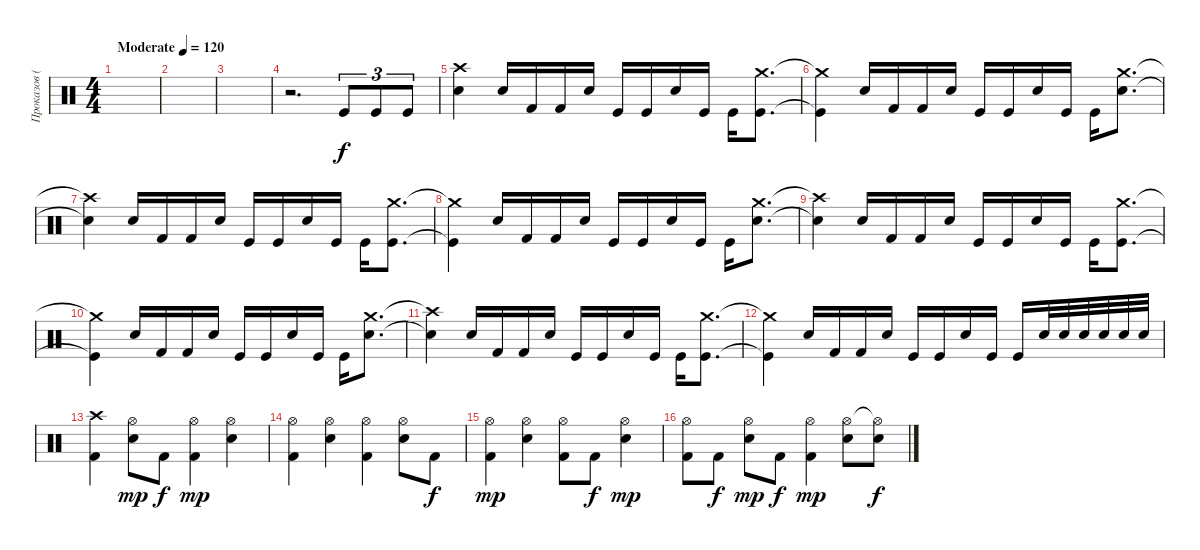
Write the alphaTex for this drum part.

\track ("Проказов (ударные)" "Проказов (") {instrument percussion}
\staff {score}
\articulation defaults
\ts (4 4)
\tempo (120 "Moderate")
\clef neutral
\ks c
|
|
|
r.2{d} "Kick (hit)".8{tu (3 2)} "Kick (hit)".8{tu (3 2)} "Kick (hit)".8{tu (3 2)} |
("Crash high (hit)" "Snare (hit) 2").4 "Snare (hit) 2".16 "Kick (hit) 2".16 "Kick (hit) 2".16 "Snare (hit) 2".16 "Kick (hit)".16 "Kick (hit)".16 "Snare (hit) 2".16 "Kick (hit)".16 "Kick (hit)".16 ("Crash medium (hit)" "Kick (hit)").8{d} |
("Crash medium (hit)"{t} "Kick (hit)"{t}).4 "Snare (hit) 2".16 "Kick (hit) 2".16 "Kick (hit) 2".16 "Snare (hit) 2".16 "Kick (hit)".16 "Kick (hit)".16 "Snare (hit) 2".16 "Kick (hit)".16 "Kick (hit)".16 ("Crash medium (hit)" "Snare (hit) 2").8{d} |
("Crash high (hit)"{t} "Snare (hit) 2"{t}).4 "Snare (hit) 2".16 "Kick (hit) 2".16 "Kick (hit) 2".16 "Snare (hit) 2".16 "Kick (hit)".16 "Kick (hit)".16 "Snare (hit) 2".16 "Kick (hit)".16 "Kick (hit)".16 ("Crash medium (hit)" "Kick (hit)").8{d} |
("Crash medium (hit)"{t} "Kick (hit)"{t}).4 "Snare (hit) 2".16 "Kick (hit) 2".16 "Kick (hit) 2".16 "Snare (hit) 2".16 "Kick (hit)".16 "Kick (hit)".16 "Snare (hit) 2".16 "Kick (hit)".16 "Kick (hit)".16 ("Crash medium (hit)" "Snare (hit) 2").8{d} |
("Crash high (hit)"{t} "Snare (hit) 2"{t}).4 "Snare (hit) 2".16 "Kick (hit) 2".16 "Kick (hit) 2".16 "Snare (hit) 2".16 "Kick (hit)".16 "Kick (hit)".16 "Snare (hit) 2".16 "Kick (hit)".16 "Kick (hit)".16 ("Crash medium (hit)" "Kick (hit)").8{d} |
("Crash medium (hit)"{t} "Kick (hit)"{t}).4 "Snare (hit) 2".16 "Kick (hit) 2".16 "Kick (hit) 2".16 "Snare (hit) 2".16 "Kick (hit)".16 "Kick (hit)".16 "Snare (hit) 2".16 "Kick (hit)".16 "Kick (hit)".16 ("Crash medium (hit)" "Snare (hit) 2").8{d} |
("Crash high (hit)"{t} "Snare (hit) 2"{t}).4 "Snare (hit) 2".16 "Kick (hit) 2".16 "Kick (hit) 2".16 "Snare (hit) 2".16 "Kick (hit)".16 "Kick (hit)".16 "Snare (hit) 2".16 "Kick (hit)".16 "Kick (hit)".16 ("Crash medium (hit)" "Kick (hit)").8{d} |
("Crash medium (hit)"{t} "Kick (hit)"{t}).4 "Snare (hit) 2".16 "Kick (hit) 2".16 "Kick (hit) 2".16 "Snare (hit) 2".16 "Kick (hit)".16 "Kick (hit)".16 "Snare (hit) 2".16 "Kick (hit)".16 "Kick (hit)".16 "Electric Snare (hit)".32 "Electric Snare (hit)".32 "Electric Snare (hit)".32 "Electric Snare (hit)".32 "Electric Snare (hit)".32 "Electric Snare (hit)".32 |
("Crash high (hit)" "Kick (hit) 2").4 ("Hi-Hat (open)" "Snare (hit) 2").8{dy mp} "Kick (hit) 2".8{dy f} ("Hi-Hat (open)" "Kick (hit) 2").4{dy mp} ("Hi-Hat (open)" "Snare (hit) 2").4 |
("Hi-Hat (open)" "Kick (hit) 2").4 ("Hi-Hat (open)" "Snare (hit) 2").4 ("Hi-Hat (open)" "Kick (hit) 2").4 ("Hi-Hat (open)" "Snare (hit) 2").8 "Kick (hit) 2".8{dy f} |
("Hi-Hat (open)" "Kick (hit) 2").4{dy mp} ("Hi-Hat (open)" "Snare (hit) 2").4 ("Hi-Hat (open)" "Kick (hit) 2").8 "Kick (hit) 2".8{dy f} ("Hi-Hat (open)" "Snare (hit) 2").4{dy mp} |
("Hi-Hat (open)" "Kick (hit) 2").8 "Kick (hit) 2".8{dy f} ("Hi-Hat (open)" "Snare (hit) 2").8{dy mp} "Kick (hit) 2".8{dy f} ("Hi-Hat (open)" "Kick (hit) 2").4{dy mp} ("Hi-Hat (open)" "Snare (hit) 2").8 ("Hi-Hat (open)"{t} "Snare (hit) 2").8{dy f}
